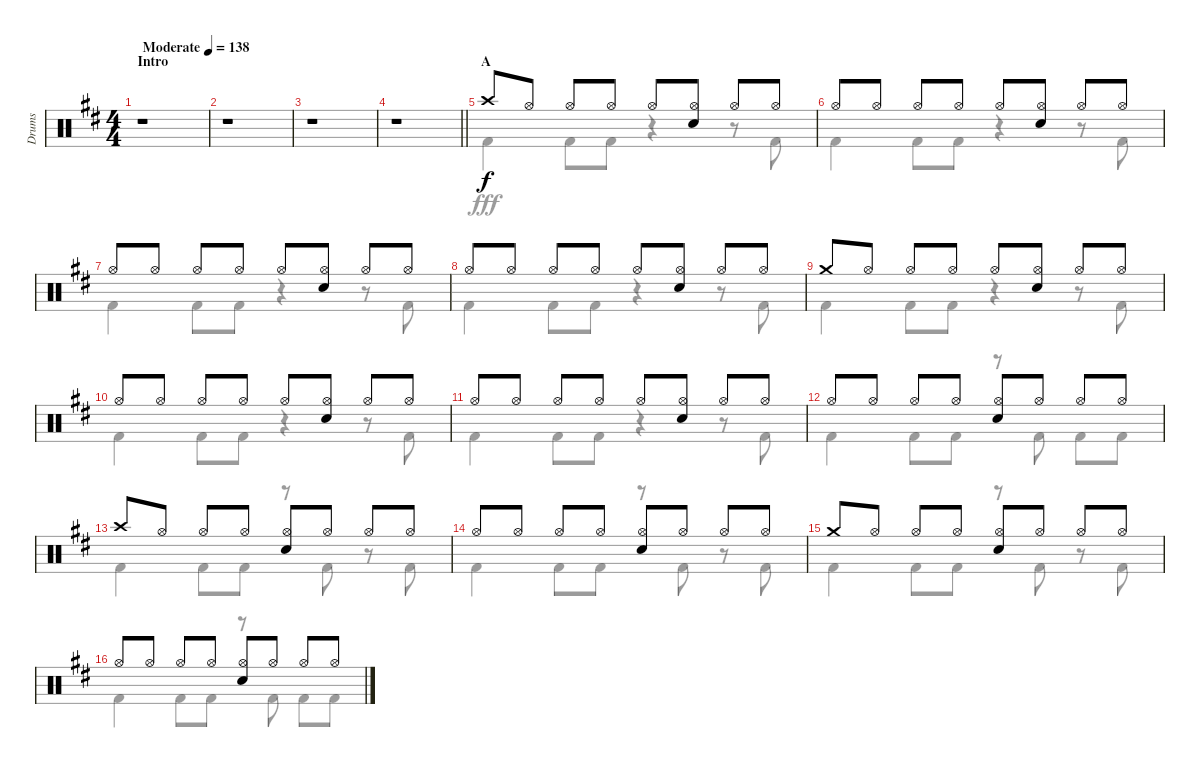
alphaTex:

\track ("Drums" "Drums") {instrument percussion}
\staff {score}
\articulation defaults
\voice
\ts (4 4)
\section ("" "Intro")
\tempo (138 "Moderate")
\clef neutral
\ks d
r.1{dy f} |
r.1 |
r.1 |
\barLineRight lightlight
r.1 |
\section ("" "A")
"Crash high (hit)".8 "Hi-Hat (open)".8 "Hi-Hat (open)".8 "Hi-Hat (open)".8 "Hi-Hat (open)".8 ("Hi-Hat (open)" "Snare (hit) 2").8 "Hi-Hat (open)".8 "Hi-Hat (open)".8 |
"Hi-Hat (open)".8 "Hi-Hat (open)".8 "Hi-Hat (open)".8 "Hi-Hat (open)".8 "Hi-Hat (open)".8 ("Hi-Hat (open)" "Snare (hit) 2").8 "Hi-Hat (open)".8 "Hi-Hat (open)".8 |
"Hi-Hat (open)".8 "Hi-Hat (open)".8 "Hi-Hat (open)".8 "Hi-Hat (open)".8 "Hi-Hat (open)".8 ("Hi-Hat (open)" "Snare (hit) 2").8 "Hi-Hat (open)".8 "Hi-Hat (open)".8 |
"Hi-Hat (open)".8 "Hi-Hat (open)".8 "Hi-Hat (open)".8 "Hi-Hat (open)".8 "Hi-Hat (open)".8 ("Hi-Hat (open)" "Snare (hit) 2").8 "Hi-Hat (open)".8 "Hi-Hat (open)".8 |
"Crash medium (hit)".8 "Hi-Hat (open)".8 "Hi-Hat (open)".8 "Hi-Hat (open)".8 "Hi-Hat (open)".8 ("Hi-Hat (open)" "Snare (hit) 2").8 "Hi-Hat (open)".8 "Hi-Hat (open)".8 |
"Hi-Hat (open)".8 "Hi-Hat (open)".8 "Hi-Hat (open)".8 "Hi-Hat (open)".8 "Hi-Hat (open)".8 ("Hi-Hat (open)" "Snare (hit) 2").8 "Hi-Hat (open)".8 "Hi-Hat (open)".8 |
"Hi-Hat (open)".8 "Hi-Hat (open)".8 "Hi-Hat (open)".8 "Hi-Hat (open)".8 "Hi-Hat (open)".8 ("Hi-Hat (open)" "Snare (hit) 2").8 "Hi-Hat (open)".8 "Hi-Hat (open)".8 |
"Hi-Hat (open)".8 "Hi-Hat (open)".8 "Hi-Hat (open)".8 "Hi-Hat (open)".8 ("Hi-Hat (open)" "Snare (hit) 2").8 "Hi-Hat (open)".8 "Hi-Hat (open)".8 "Hi-Hat (open)".8 |
"Crash high (hit)".8 "Hi-Hat (open)".8 "Hi-Hat (open)".8 "Hi-Hat (open)".8 ("Hi-Hat (open)" "Snare (hit) 2").8 "Hi-Hat (open)".8 "Hi-Hat (open)".8 "Hi-Hat (open)".8 |
"Hi-Hat (open)".8 "Hi-Hat (open)".8 "Hi-Hat (open)".8 "Hi-Hat (open)".8 ("Hi-Hat (open)" "Snare (hit) 2").8 "Hi-Hat (open)".8 "Hi-Hat (open)".8 "Hi-Hat (open)".8 |
"Crash medium (hit)".8 "Hi-Hat (open)".8 "Hi-Hat (open)".8 "Hi-Hat (open)".8 ("Hi-Hat (open)" "Snare (hit) 2").8 "Hi-Hat (open)".8 "Hi-Hat (open)".8 "Hi-Hat (open)".8 |
"Hi-Hat (open)".8 "Hi-Hat (open)".8 "Hi-Hat (open)".8 "Hi-Hat (open)".8 ("Hi-Hat (open)" "Snare (hit) 2").8 "Hi-Hat (open)".8 "Hi-Hat (open)".8 "Hi-Hat (open)".8
\voice
\clef neutral
\ottava regular
\simile none
\ks d
r.1{dy fff} |
r.1 |
r.1 |
\barLineRight lightlight
r.1 |
"Kick (hit) 2".4 "Kick (hit) 2".8 "Kick (hit) 2".8 r.4 r.8 "Kick (hit) 2".8 |
"Kick (hit) 2".4 "Kick (hit) 2".8 "Kick (hit) 2".8 r.4 r.8 "Kick (hit) 2".8 |
"Kick (hit) 2".4 "Kick (hit) 2".8 "Kick (hit) 2".8 r.4 r.8 "Kick (hit) 2".8 |
"Kick (hit) 2".4 "Kick (hit) 2".8 "Kick (hit) 2".8 r.4 r.8 "Kick (hit) 2".8 |
"Kick (hit) 2".4 "Kick (hit) 2".8 "Kick (hit) 2".8 r.4 r.8 "Kick (hit) 2".8 |
"Kick (hit) 2".4 "Kick (hit) 2".8 "Kick (hit) 2".8 r.4 r.8 "Kick (hit) 2".8 |
"Kick (hit) 2".4 "Kick (hit) 2".8 "Kick (hit) 2".8 r.4 r.8 "Kick (hit) 2".8 |
"Kick (hit) 2".4 "Kick (hit) 2".8 "Kick (hit) 2".8 r.8 "Kick (hit) 2".8 "Kick (hit) 2".8 "Kick (hit) 2".8 |
"Kick (hit) 2".4 "Kick (hit) 2".8 "Kick (hit) 2".8 r.8 "Kick (hit) 2".8 r.8 "Kick (hit) 2".8 |
"Kick (hit) 2".4 "Kick (hit) 2".8 "Kick (hit) 2".8 r.8 "Kick (hit) 2".8 r.8 "Kick (hit) 2".8 |
"Kick (hit) 2".4 "Kick (hit) 2".8 "Kick (hit) 2".8 r.8 "Kick (hit) 2".8 r.8 "Kick (hit) 2".8 |
"Kick (hit) 2".4 "Kick (hit) 2".8 "Kick (hit) 2".8 r.8 "Kick (hit) 2".8 "Kick (hit) 2".8 "Kick (hit) 2".8
